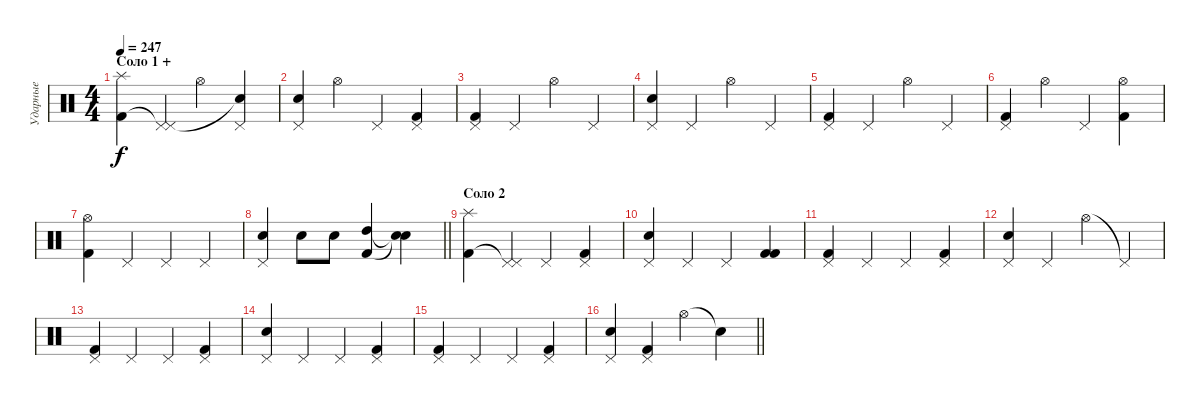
\track ("Ударные" "Ударные") {instrument percussion}
\staff {score}
\articulation defaults
\ts (4 4)
\section ("" "Соло 1 +")
\tempo 247
\clef neutral
\ks c
("Kick (hit) 2" "Splash (hit)").4{dy f} ("Pedal Hi-Hat (hit)"{t} "Pedal Hi-Hat (hit)").4 "Hi-Hat (open)".4 ("Pedal Hi-Hat (hit)" "Snare (hit)"{t}).4 |
("Pedal Hi-Hat (hit)" "Electric Snare (hit)").4 "Hi-Hat (open)".4 "Pedal Hi-Hat (hit)".4 ("Kick (hit) 2" "Pedal Hi-Hat (hit)").4 |
("Pedal Hi-Hat (hit)" "Kick (hit) 2").4 "Pedal Hi-Hat (hit)".4 "Hi-Hat (open)".4 "Pedal Hi-Hat (hit)".4 |
("Pedal Hi-Hat (hit)" "Electric Snare (hit)").4 "Pedal Hi-Hat (hit)".4 "Hi-Hat (open)".4 "Pedal Hi-Hat (hit)".4 |
("Kick (hit) 2" "Pedal Hi-Hat (hit)").4 "Pedal Hi-Hat (hit)".4 "Hi-Hat (open)".4 "Pedal Hi-Hat (hit)".4 |
("Pedal Hi-Hat (hit)" "Kick (hit) 2").4 "Hi-Hat (open)".4 "Pedal Hi-Hat (hit)".4 ("Kick (hit) 2" "Hi-Hat (open)").4 |
("Kick (hit) 2" "Hi-Hat (open)").4 "Pedal Hi-Hat (hit)".4 "Pedal Hi-Hat (hit)".4 "Pedal Hi-Hat (hit)".4 |
\barLineRight lightlight
("Electric Snare (hit)" "Pedal Hi-Hat (hit)").4 "Electric Snare (hit)".8 "Electric Snare (hit)".8 ("Kick (hit) 2" "High Tom (hit)").4 ("Snare (hit)"{t} "Snare (hit)"{t}).4 |
\section ("" "Соло 2")
("Kick (hit) 2" "Splash (hit)").4 ("Pedal Hi-Hat (hit)"{t} "Pedal Hi-Hat (hit)").4 "Pedal Hi-Hat (hit)".4 ("Kick (hit) 2" "Pedal Hi-Hat (hit)").4 |
("Pedal Hi-Hat (hit)" "Electric Snare (hit)").4 "Pedal Hi-Hat (hit)".4 "Pedal Hi-Hat (hit)".4 ("Kick (hit) 2" "Kick (hit) 2").4 |
("Pedal Hi-Hat (hit)" "Kick (hit) 2").4 "Pedal Hi-Hat (hit)".4 "Pedal Hi-Hat (hit)".4 ("Kick (hit) 2" "Pedal Hi-Hat (hit)").4 |
("Pedal Hi-Hat (hit)" "Electric Snare (hit)").4 "Pedal Hi-Hat (hit)".4 "Hi-Hat (open)".4 "Pedal Hi-Hat (hit)"{t}.4 |
("Kick (hit) 2" "Pedal Hi-Hat (hit)").4 "Pedal Hi-Hat (hit)".4 "Pedal Hi-Hat (hit)".4 ("Pedal Hi-Hat (hit)" "Kick (hit) 2").4 |
("Pedal Hi-Hat (hit)" "Electric Snare (hit)").4 "Pedal Hi-Hat (hit)".4 "Pedal Hi-Hat (hit)".4 ("Kick (hit) 2" "Pedal Hi-Hat (hit)").4 |
("Kick (hit) 2" "Pedal Hi-Hat (hit)").4 "Pedal Hi-Hat (hit)".4 "Pedal Hi-Hat (hit)".4 ("Kick (hit) 2" "Pedal Hi-Hat (hit)").4 |
\barLineRight lightlight
("Electric Snare (hit)" "Pedal Hi-Hat (hit)").4 ("Kick (hit) 2" "Pedal Hi-Hat (hit)").4 "Hi-Hat (open)".4 "Snare (hit)"{t}.4
